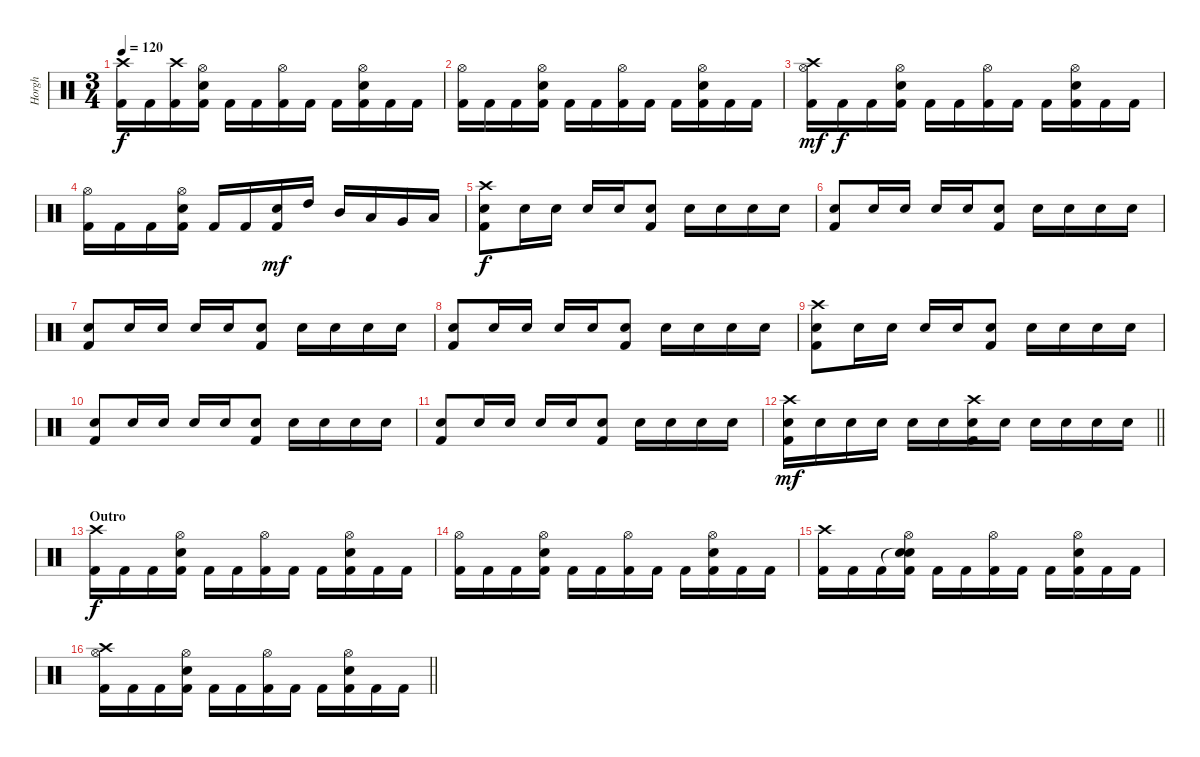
\track ("Horgh" "Horgh") {instrument percussion}
\staff {score}
\articulation defaults
\ts (3 4)
\tempo 120
\clef neutral
\ks c
("Crash high (hit)" "Kick (hit) 2").16{dy f} "Kick (hit) 2".16 ("Crash high (hit)" "Kick (hit) 2").16 ("Snare (hit) 2" "Hi-Hat (open)" "Kick (hit) 2").16 "Kick (hit) 2".16 "Kick (hit) 2".16 ("Hi-Hat (open)" "Kick (hit) 2").16 "Kick (hit) 2".16 "Kick (hit) 2".16 ("Snare (hit) 2" "Hi-Hat (open)" "Kick (hit) 2").16 "Kick (hit) 2".16 "Kick (hit) 2".16 |
("Hi-Hat (open)" "Kick (hit) 2").16 "Kick (hit) 2".16 "Kick (hit) 2".16 ("Snare (hit) 2" "Hi-Hat (open)" "Kick (hit) 2").16 "Kick (hit) 2".16 "Kick (hit) 2".16 ("Hi-Hat (open)" "Kick (hit) 2").16 "Kick (hit) 2".16 "Kick (hit) 2".16 ("Snare (hit) 2" "Hi-Hat (open)" "Kick (hit) 2").16 "Kick (hit) 2".16 "Kick (hit) 2".16 |
("Crash high (hit)" "Hi-Hat (open)" "Kick (hit) 2").16{dy mf} "Kick (hit) 2".16{dy f} "Kick (hit) 2".16 ("Snare (hit) 2" "Hi-Hat (open)" "Kick (hit) 2").16 "Kick (hit) 2".16 "Kick (hit) 2".16 ("Hi-Hat (open)" "Kick (hit) 2").16 "Kick (hit) 2".16 "Kick (hit) 2".16 ("Snare (hit) 2" "Hi-Hat (open)" "Kick (hit) 2").16 "Kick (hit) 2".16 "Kick (hit) 2".16 |
("Hi-Hat (open)" "Kick (hit) 2").16 "Kick (hit) 2".16 "Kick (hit) 2".16 ("Snare (hit) 2" "Hi-Hat (open)" "Kick (hit) 2").16 "Kick (hit) 2".16 "Kick (hit) 2".16 ("Snare (hit) 2" "Kick (hit) 2").16{dy mf} "High Tom (hit)".16 "Mid Tom (hit)".16 "Low Tom (hit)".16 "Very Low Tom (hit)".16 "Low Floor Tom (hit)".16 |
("Crash high (hit)" "Snare (hit) 2" "Kick (hit) 2").8{dy f} "Snare (hit) 2".16 "Snare (hit) 2".16 "Snare (hit) 2".16 "Snare (hit) 2".16 ("Snare (hit) 2" "Kick (hit) 2").8 "Snare (hit) 2".16 "Snare (hit) 2".16 "Snare (hit) 2".16 "Snare (hit) 2".16 |
("Snare (hit) 2" "Kick (hit) 2").8 "Snare (hit) 2".16 "Snare (hit) 2".16 "Snare (hit) 2".16 "Snare (hit) 2".16 ("Snare (hit) 2" "Kick (hit) 2").8 "Snare (hit) 2".16 "Snare (hit) 2".16 "Snare (hit) 2".16 "Snare (hit) 2".16 |
("Snare (hit) 2" "Kick (hit) 2").8 "Snare (hit) 2".16 "Snare (hit) 2".16 "Snare (hit) 2".16 "Snare (hit) 2".16 ("Snare (hit) 2" "Kick (hit) 2").8 "Snare (hit) 2".16 "Snare (hit) 2".16 "Snare (hit) 2".16 "Snare (hit) 2".16 |
("Snare (hit) 2" "Kick (hit) 2").8 "Snare (hit) 2".16 "Snare (hit) 2".16 "Snare (hit) 2".16 "Snare (hit) 2".16 ("Snare (hit) 2" "Kick (hit) 2").8 "Snare (hit) 2".16 "Snare (hit) 2".16 "Snare (hit) 2".16 "Snare (hit) 2".16 |
("Crash high (hit)" "Snare (hit) 2" "Kick (hit) 2").8 "Snare (hit) 2".16 "Snare (hit) 2".16 "Snare (hit) 2".16 "Snare (hit) 2".16 ("Snare (hit) 2" "Kick (hit) 2").8 "Snare (hit) 2".16 "Snare (hit) 2".16 "Snare (hit) 2".16 "Snare (hit) 2".16 |
("Snare (hit) 2" "Kick (hit) 2").8 "Snare (hit) 2".16 "Snare (hit) 2".16 "Snare (hit) 2".16 "Snare (hit) 2".16 ("Snare (hit) 2" "Kick (hit) 2").8 "Snare (hit) 2".16 "Snare (hit) 2".16 "Snare (hit) 2".16 "Snare (hit) 2".16 |
("Snare (hit) 2" "Kick (hit) 2").8 "Snare (hit) 2".16 "Snare (hit) 2".16 "Snare (hit) 2".16 "Snare (hit) 2".16 ("Snare (hit) 2" "Kick (hit) 2").8 "Snare (hit) 2".16 "Snare (hit) 2".16 "Snare (hit) 2".16 "Snare (hit) 2".16 |
\barLineRight lightlight
("Crash high (hit)" "Snare (hit) 2" "Kick (hit) 2").16{dy mf} "Snare (hit) 2".16 "Snare (hit) 2".16 "Snare (hit) 2".16 "Snare (hit) 2".16 "Snare (hit) 2".16 ("Crash high (hit)" "Snare (hit) 2" "Kick (hit) 2").16 "Snare (hit) 2".16 "Snare (hit) 2".16 "Snare (hit) 2".16 "Snare (hit) 2".16 "Snare (hit) 2".16 |
\section ("" "Outro")
("Crash high (hit)" "Kick (hit) 2").16{dy f} "Kick (hit) 2".16 "Kick (hit) 2".16 ("Snare (hit) 2" "Hi-Hat (open)" "Kick (hit) 2").16 "Kick (hit) 2".16 "Kick (hit) 2".16 ("Hi-Hat (open)" "Kick (hit) 2").16 "Kick (hit) 2".16 "Kick (hit) 2".16 ("Snare (hit) 2" "Hi-Hat (open)" "Kick (hit) 2").16 "Kick (hit) 2".16 "Kick (hit) 2".16 |
("Hi-Hat (open)" "Kick (hit) 2").16 "Kick (hit) 2".16 "Kick (hit) 2".16 ("Snare (hit) 2" "Hi-Hat (open)" "Kick (hit) 2").16 "Kick (hit) 2".16 "Kick (hit) 2".16 ("Hi-Hat (open)" "Kick (hit) 2").16 "Kick (hit) 2".16 "Kick (hit) 2".16 ("Snare (hit) 2" "Hi-Hat (open)" "Kick (hit) 2").16 "Kick (hit) 2".16 "Kick (hit) 2".16 |
("Crash high (hit)" "Kick (hit) 2").16 "Kick (hit) 2".16 "Kick (hit) 2".16 ("Snare (hit)"{t} "Snare (hit) 2" "Hi-Hat (open)" "Kick (hit) 2").16 "Kick (hit) 2".16 "Kick (hit) 2".16 ("Hi-Hat (open)" "Kick (hit) 2").16 "Kick (hit) 2".16 "Kick (hit) 2".16 ("Snare (hit) 2" "Hi-Hat (open)" "Kick (hit) 2").16 "Kick (hit) 2".16 "Kick (hit) 2".16 |
\barLineRight lightlight
("Crash high (hit)" "Hi-Hat (open)" "Kick (hit) 2").16 "Kick (hit) 2".16 "Kick (hit) 2".16 ("Snare (hit) 2" "Hi-Hat (open)" "Kick (hit) 2").16 "Kick (hit) 2".16 "Kick (hit) 2".16 ("Hi-Hat (open)" "Kick (hit) 2").16 "Kick (hit) 2".16 "Kick (hit) 2".16 ("Snare (hit) 2" "Hi-Hat (open)" "Kick (hit) 2").16 "Kick (hit) 2".16 "Kick (hit) 2".16
